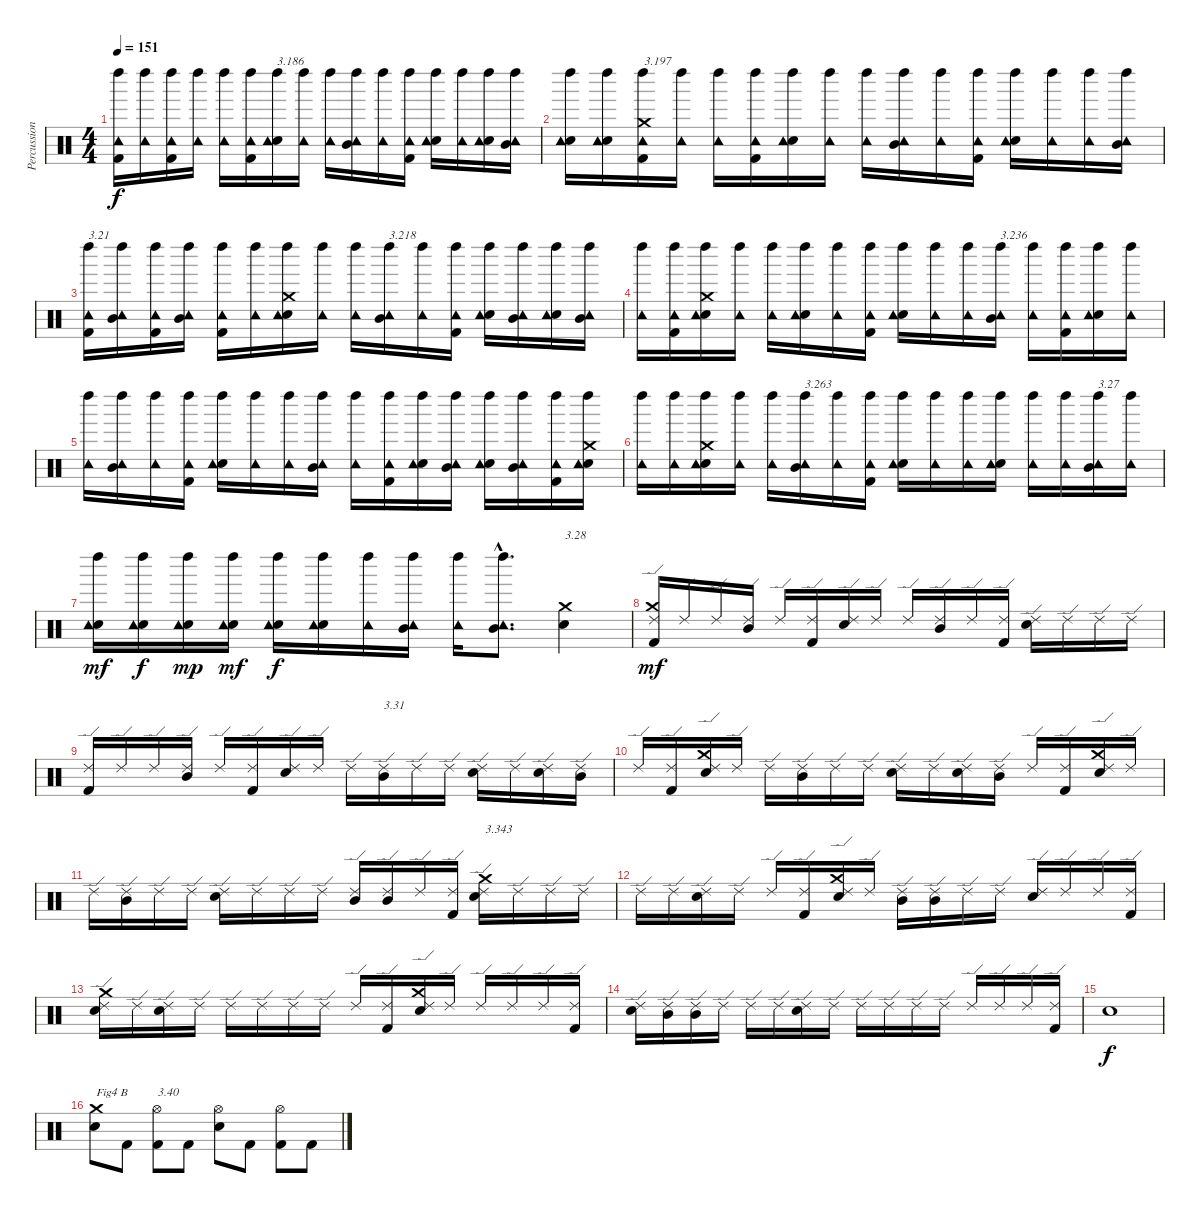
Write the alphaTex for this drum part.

\track ("Percussions" "Percussion") {instrument percussion}
\staff {score}
\articulation defaults
\ts (4 4)
\tempo 151
\clef neutral
\ks c
("Kick (hit) 2" "Tambourine (hit)" "Left Maraca (hit)").16{dy f} ("Tambourine (hit)" "Left Maraca (hit)").16 ("Kick (hit) 2" "Tambourine (hit)" "Left Maraca (hit)").16 ("Tambourine (hit)" "Left Maraca (hit)").16 ("Tambourine (hit)" "Left Maraca (hit)").16 ("Kick (hit) 2" "Tambourine (hit)" "Left Maraca (hit)").16 ("Snare (hit) 2" "Tambourine (hit)" "Left Maraca (hit)").16{txt "3.186"} ("Tambourine (hit)" "Left Maraca (hit)").16 ("Tambourine (hit)" "Left Maraca (hit)").16 ("Mid Tom (hit)" "Tambourine (hit)" "Left Maraca (hit)").16 ("Tambourine (hit)" "Left Maraca (hit)").16 ("Kick (hit) 2" "Tambourine (hit)" "Left Maraca (hit)").16 ("Snare (hit) 2" "Tambourine (hit)" "Left Maraca (hit)").16 ("Tambourine (hit)" "Left Maraca (hit)").16 ("Snare (hit) 2" "Tambourine (hit)" "Left Maraca (hit)").16 ("Mid Tom (hit)" "Tambourine (hit)" "Left Maraca (hit)").16 |
("Snare (hit) 2" "Tambourine (hit)" "Left Maraca (hit)").16 ("Snare (hit) 2" "Tambourine (hit)" "Left Maraca (hit)").16 ("Kick (hit) 2" "Crash medium (hit)" "Tambourine (hit)" "Left Maraca (hit)").16{txt "3.197"} ("Tambourine (hit)" "Left Maraca (hit)").16 ("Tambourine (hit)" "Left Maraca (hit)").16 ("Kick (hit) 2" "Tambourine (hit)" "Left Maraca (hit)").16 ("Snare (hit) 2" "Tambourine (hit)" "Left Maraca (hit)").16 ("Tambourine (hit)" "Left Maraca (hit)").16 ("Tambourine (hit)" "Left Maraca (hit)").16 ("Mid Tom (hit)" "Tambourine (hit)" "Left Maraca (hit)").16 ("Tambourine (hit)" "Left Maraca (hit)").16 ("Kick (hit) 2" "Tambourine (hit)" "Left Maraca (hit)").16 ("Snare (hit) 2" "Tambourine (hit)" "Left Maraca (hit)").16 ("Tambourine (hit)" "Left Maraca (hit)").16 ("Tambourine (hit)" "Left Maraca (hit)").16 ("Mid Tom (hit)" "Tambourine (hit)" "Left Maraca (hit)").16 |
("Kick (hit) 2" "Tambourine (hit)" "Left Maraca (hit)").16{txt "3.21"} ("Mid Tom (hit)" "Tambourine (hit)" "Left Maraca (hit)").16 ("Kick (hit) 2" "Tambourine (hit)" "Left Maraca (hit)").16 ("Mid Tom (hit)" "Tambourine (hit)" "Left Maraca (hit)").16 ("Kick (hit) 2" "Tambourine (hit)" "Left Maraca (hit)").16 ("Tambourine (hit)" "Left Maraca (hit)").16 ("Snare (hit) 2" "Crash medium (hit)" "Tambourine (hit)" "Left Maraca (hit)").16 ("Tambourine (hit)" "Left Maraca (hit)").16 ("Tambourine (hit)" "Left Maraca (hit)").16 ("Mid Tom (hit)" "Tambourine (hit)" "Left Maraca (hit)").16{txt "3.218"} ("Tambourine (hit)" "Left Maraca (hit)").16 ("Kick (hit) 2" "Tambourine (hit)" "Left Maraca (hit)").16 ("Snare (hit) 2" "Tambourine (hit)" "Left Maraca (hit)").16 ("Mid Tom (hit)" "Tambourine (hit)" "Left Maraca (hit)").16 ("Snare (hit) 2" "Tambourine (hit)" "Left Maraca (hit)").16 ("Mid Tom (hit)" "Tambourine (hit)" "Left Maraca (hit)").16 |
("Tambourine (hit)" "Left Maraca (hit)").16 ("Kick (hit) 2" "Tambourine (hit)" "Left Maraca (hit)").16 ("Snare (hit) 2" "Crash medium (hit)" "Tambourine (hit)" "Left Maraca (hit)").16 ("Tambourine (hit)" "Left Maraca (hit)").16 ("Tambourine (hit)" "Left Maraca (hit)").16 ("Snare (hit) 2" "Tambourine (hit)" "Left Maraca (hit)").16 ("Tambourine (hit)" "Left Maraca (hit)").16 ("Kick (hit) 2" "Tambourine (hit)" "Left Maraca (hit)").16 ("Snare (hit) 2" "Tambourine (hit)" "Left Maraca (hit)").16 ("Tambourine (hit)" "Left Maraca (hit)").16 ("Tambourine (hit)" "Left Maraca (hit)").16 ("Mid Tom (hit)" "Tambourine (hit)" "Left Maraca (hit)").16{txt "3.236"} ("Tambourine (hit)" "Left Maraca (hit)").16 ("Kick (hit) 2" "Tambourine (hit)" "Left Maraca (hit)").16 ("Snare (hit) 2" "Tambourine (hit)" "Left Maraca (hit)").16 ("Tambourine (hit)" "Left Maraca (hit)").16 |
("Tambourine (hit)" "Left Maraca (hit)").16 ("Mid Tom (hit)" "Tambourine (hit)" "Left Maraca (hit)").16 ("Tambourine (hit)" "Left Maraca (hit)").16 ("Kick (hit) 2" "Tambourine (hit)" "Left Maraca (hit)").16 ("Snare (hit) 2" "Tambourine (hit)" "Left Maraca (hit)").16 ("Tambourine (hit)" "Left Maraca (hit)").16 ("Tambourine (hit)" "Left Maraca (hit)").16 ("Mid Tom (hit)" "Tambourine (hit)" "Left Maraca (hit)").16 ("Tambourine (hit)" "Left Maraca (hit)").16 ("Kick (hit) 2" "Tambourine (hit)" "Left Maraca (hit)").16 ("Snare (hit) 2" "Tambourine (hit)" "Left Maraca (hit)").16 ("Mid Tom (hit)" "Tambourine (hit)" "Left Maraca (hit)").16 ("Snare (hit) 2" "Tambourine (hit)" "Left Maraca (hit)").16 ("Mid Tom (hit)" "Tambourine (hit)" "Left Maraca (hit)").16 ("Kick (hit) 2" "Tambourine (hit)" "Left Maraca (hit)").16 ("Snare (hit) 2" "Crash medium (hit)" "Tambourine (hit)" "Left Maraca (hit)").16 |
("Tambourine (hit)" "Left Maraca (hit)").16 ("Tambourine (hit)" "Left Maraca (hit)").16 ("Snare (hit) 2" "Crash medium (hit)" "Tambourine (hit)" "Left Maraca (hit)").16 ("Tambourine (hit)" "Left Maraca (hit)").16 ("Tambourine (hit)" "Left Maraca (hit)").16 ("Mid Tom (hit)" "Tambourine (hit)" "Left Maraca (hit)").16{txt "3.263"} ("Tambourine (hit)" "Left Maraca (hit)").16 ("Kick (hit) 2" "Tambourine (hit)" "Left Maraca (hit)").16 ("Snare (hit) 2" "Tambourine (hit)" "Left Maraca (hit)").16 ("Tambourine (hit)" "Left Maraca (hit)").16 ("Tambourine (hit)" "Left Maraca (hit)").16 ("Snare (hit) 2" "Tambourine (hit)" "Left Maraca (hit)").16 ("Tambourine (hit)" "Left Maraca (hit)").16 ("Tambourine (hit)" "Left Maraca (hit)").16 ("Mid Tom (hit)" "Tambourine (hit)" "Left Maraca (hit)").16{txt "3.27"} ("Tambourine (hit)" "Left Maraca (hit)").16 |
("Snare (hit) 2" "Tambourine (hit)" "Left Maraca (hit)").16{dy mf} ("Snare (hit) 2" "Tambourine (hit)" "Left Maraca (hit)").16{dy f} ("Snare (hit) 2" "Tambourine (hit)" "Left Maraca (hit)").16{dy mp} ("Snare (hit) 2" "Tambourine (hit)" "Left Maraca (hit)").16{dy mf} ("Snare (hit) 2" "Tambourine (hit)" "Left Maraca (hit)").16{dy f} ("Snare (hit) 2" "Tambourine (hit)" "Left Maraca (hit)").16 ("Tambourine (hit)" "Left Maraca (hit)").16 ("Mid Tom (hit)" "Tambourine (hit)" "Left Maraca (hit)").16 ("Tambourine (hit)" "Left Maraca (hit)").16 ("Mid Tom (hit)"{hac} "Tambourine (hit)"{hac} "Left Maraca (hit)"{hac}).8{d} ("Snare (hit) 2" "Crash medium (hit)").4{txt "3.28"} |
("Kick (hit) 2" "Crash medium (hit)" "Ride (edge) 2").16{dy mf} "Ride (edge) 2".16 "Ride (edge) 2".16 ("Mid Tom (hit)" "Ride (edge) 2").16 "Ride (edge) 2".16 ("Kick (hit) 2" "Ride (edge) 2").16 ("Snare (hit) 2" "Ride (edge) 2").16 "Ride (edge) 2".16 "Ride (edge) 2".16 ("Mid Tom (hit)" "Ride (edge) 2").16 "Ride (edge) 2".16 ("Kick (hit) 2" "Ride (edge) 2").16 ("Snare (hit) 2" "Ride (edge) 2").16 "Ride (edge) 2".16 "Ride (edge) 2".16 "Ride (edge) 2".16 |
("Kick (hit) 2" "Ride (edge) 2").16 "Ride (edge) 2".16 "Ride (edge) 2".16 ("Mid Tom (hit)" "Ride (edge) 2").16 "Ride (edge) 2".16 ("Kick (hit) 2" "Ride (edge) 2").16 ("Snare (hit) 2" "Ride (edge) 2").16 "Ride (edge) 2".16 "Ride (edge) 2".16 ("Mid Tom (hit)" "Ride (edge) 2").16{txt "3.31"} "Ride (edge) 2".16 "Ride (edge) 2".16 ("Snare (hit) 2" "Ride (edge) 2").16 "Ride (edge) 2".16 ("Snare (hit) 2" "Ride (edge) 2").16 ("Mid Tom (hit)" "Ride (edge) 2").16 |
"Ride (edge) 2".16 ("Kick (hit) 2" "Ride (edge) 2").16 ("Snare (hit) 2" "Crash medium (hit)" "Ride (edge) 2").16 "Ride (edge) 2".16 "Ride (edge) 2".16 ("Mid Tom (hit)" "Ride (edge) 2").16 "Ride (edge) 2".16 "Ride (edge) 2".16 ("Snare (hit) 2" "Ride (edge) 2").16 "Ride (edge) 2".16 ("Snare (hit) 2" "Ride (edge) 2").16 ("Mid Tom (hit)" "Ride (edge) 2").16 "Ride (edge) 2".16 ("Kick (hit) 2" "Ride (edge) 2").16 ("Snare (hit) 2" "Crash medium (hit)" "Ride (edge) 2").16 "Ride (edge) 2".16 |
"Ride (edge) 2".16 ("Mid Tom (hit)" "Ride (edge) 2").16 "Ride (edge) 2".16 "Ride (edge) 2".16 ("Snare (hit) 2" "Ride (edge) 2").16 "Ride (edge) 2".16 "Ride (edge) 2".16 "Ride (edge) 2".16 ("Mid Tom (hit)" "Ride (edge) 2").16 ("Mid Tom (hit)" "Ride (edge) 2").16 "Ride (edge) 2".16 ("Kick (hit) 2" "Ride (edge) 2").16 ("Snare (hit) 2" "Crash medium (hit)" "Ride (edge) 2").16{txt "3.343"} "Ride (edge) 2".16 "Ride (edge) 2".16 "Ride (edge) 2".16 |
"Ride (edge) 2".16 "Ride (edge) 2".16 ("Snare (hit) 2" "Ride (edge) 2").16 "Ride (edge) 2".16 "Ride (edge) 2".16 ("Kick (hit) 2" "Ride (edge) 2").16 ("Snare (hit) 2" "Crash medium (hit)" "Ride (edge) 2").16 "Ride (edge) 2".16 ("Mid Tom (hit)" "Ride (edge) 2").16 ("Mid Tom (hit)" "Ride (edge) 2").16 "Ride (edge) 2".16 "Ride (edge) 2".16 ("Snare (hit) 2" "Ride (edge) 2").16 "Ride (edge) 2".16 "Ride (edge) 2".16 ("Kick (hit) 2" "Ride (edge) 2").16 |
("Snare (hit) 2" "Crash medium (hit)" "Ride (edge) 2").16 "Ride (edge) 2".16 ("Snare (hit) 2" "Ride (edge) 2").16 "Ride (edge) 2".16 "Ride (edge) 2".16 "Ride (edge) 2".16 "Ride (edge) 2".16 "Ride (edge) 2".16 "Ride (edge) 2".16 ("Kick (hit) 2" "Ride (edge) 2").16 ("Snare (hit) 2" "Crash medium (hit)" "Ride (edge) 2").16 "Ride (edge) 2".16 "Ride (edge) 2".16 "Ride (edge) 2".16 "Ride (edge) 2".16 ("Kick (hit) 2" "Ride (edge) 2").16 |
("Snare (hit) 2" "Ride (edge) 2").16 ("Mid Tom (hit)" "Ride (edge) 2").16 ("Mid Tom (hit)" "Ride (edge) 2").16 "Ride (edge) 2".16 "Ride (edge) 2".16 "Ride (edge) 2".16 ("Snare (hit) 2" "Ride (edge) 2").16 "Ride (edge) 2".16 "Ride (edge) 2".16 "Ride (edge) 2".16 "Ride (edge) 2".16 "Ride (edge) 2".16 "Ride (edge) 2".16 "Ride (edge) 2".16 "Ride (edge) 2".16 ("Kick (hit) 2" "Ride (edge) 2").16 |
"Snare (hit) 2".1{dy f} |
("Electric Snare (hit)" "Crash medium (hit)").8{txt "Fig4 B"} "Kick (hit) 2".8 ("Kick (hit) 2" "Hi-Hat (open)").8{txt "3.40"} "Kick (hit) 2".8 ("Electric Snare (hit)" "Hi-Hat (open)").8 "Kick (hit) 2".8 ("Kick (hit) 2" "Hi-Hat (open)").8 "Kick (hit) 2".8
